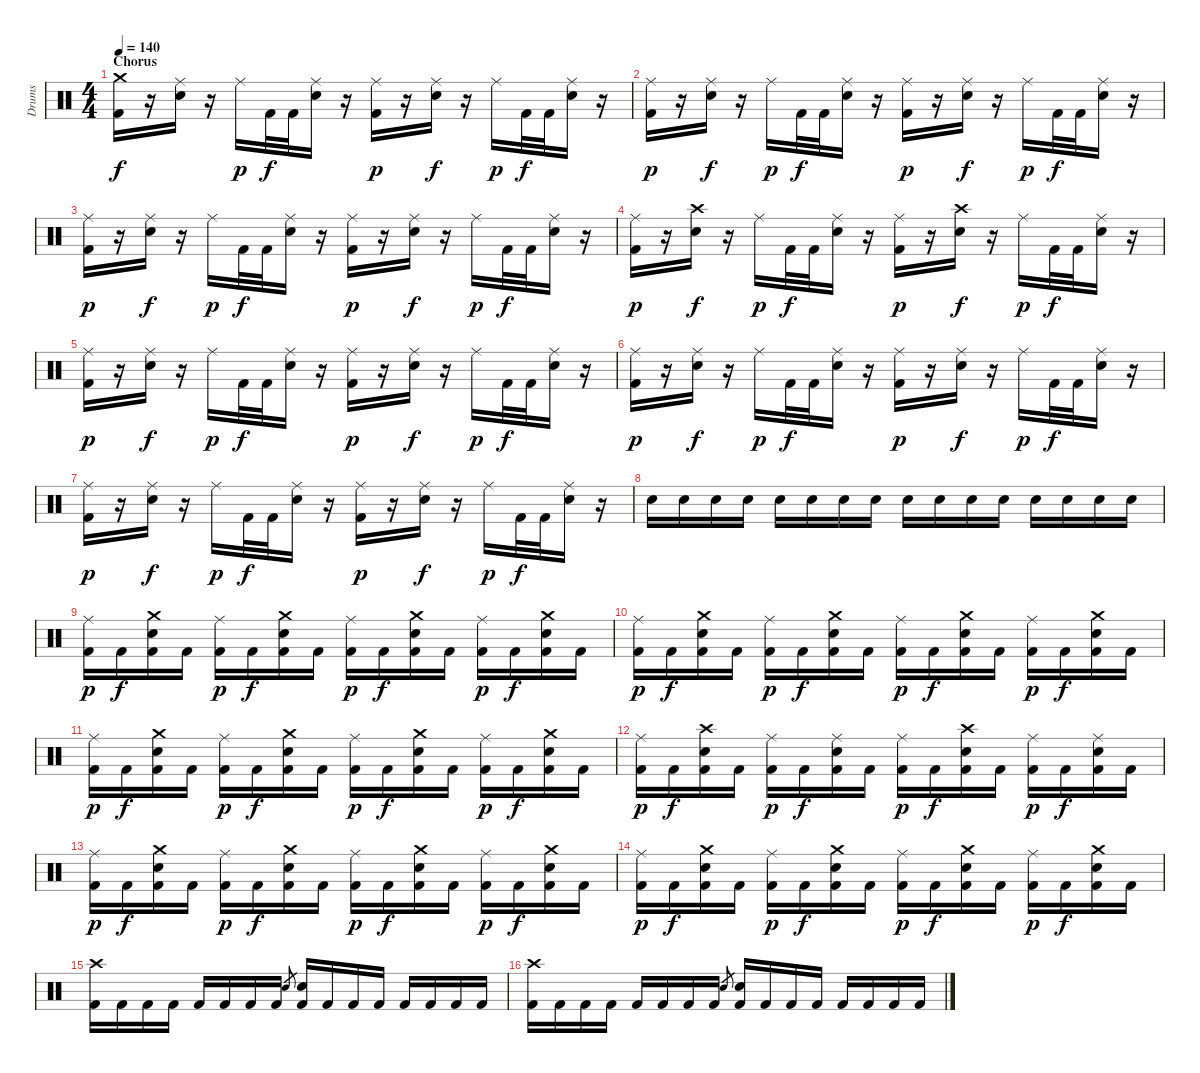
\track ("Drums" "Drums") {instrument percussion}
\staff {score}
\articulation defaults
\ts (4 4)
\section ("" "Chorus")
\tempo 140
\clef neutral
\ks c
("Crash medium (hit)" "Kick (hit) 2").16{dy f} r.16 ("Ride (middle)" "Snare (hit) 2").16 r.16 "Ride (middle)".16{dy p} "Kick (hit) 2".32{dy f} "Kick (hit) 2".32 ("Ride (middle)" "Snare (hit) 2").16 r.16 ("Ride (middle)" "Kick (hit) 2").16{dy p} r.16 ("Ride (middle)" "Snare (hit) 2").16{dy f} r.16 "Ride (middle)".16{dy p} "Kick (hit) 2".32{dy f} "Kick (hit) 2".32 ("Ride (middle)" "Snare (hit) 2").16 r.16 |
("Ride (middle)" "Kick (hit) 2").16{dy p} r.16 ("Ride (middle)" "Snare (hit) 2").16{dy f} r.16 "Ride (middle)".16{dy p} "Kick (hit) 2".32{dy f} "Kick (hit) 2".32 ("Ride (middle)" "Snare (hit) 2").16 r.16 ("Ride (middle)" "Kick (hit) 2").16{dy p} r.16 ("Ride (middle)" "Snare (hit) 2").16{dy f} r.16 "Ride (middle)".16{dy p} "Kick (hit) 2".32{dy f} "Kick (hit) 2".32 ("Ride (middle)" "Snare (hit) 2").16 r.16 |
("Ride (middle)" "Kick (hit) 2").16{dy p} r.16 ("Ride (middle)" "Snare (hit) 2").16{dy f} r.16 "Ride (middle)".16{dy p} "Kick (hit) 2".32{dy f} "Kick (hit) 2".32 ("Ride (middle)" "Snare (hit) 2").16 r.16 ("Ride (middle)" "Kick (hit) 2").16{dy p} r.16 ("Ride (middle)" "Snare (hit) 2").16{dy f} r.16 "Ride (middle)".16{dy p} "Kick (hit) 2".32{dy f} "Kick (hit) 2".32 ("Ride (middle)" "Snare (hit) 2").16 r.16 |
("Ride (middle)" "Kick (hit) 2").16{dy p} r.16 ("Crash high (hit)" "Snare (hit) 2").16{dy f} r.16 "Ride (middle)".16{dy p} "Kick (hit) 2".32{dy f} "Kick (hit) 2".32 ("Ride (middle)" "Snare (hit) 2").16 r.16 ("Ride (middle)" "Kick (hit) 2").16{dy p} r.16 ("Crash high (hit)" "Snare (hit) 2").16{dy f} r.16 "Ride (middle)".16{dy p} "Kick (hit) 2".32{dy f} "Kick (hit) 2".32 ("Ride (middle)" "Snare (hit) 2").16 r.16 |
("Ride (middle)" "Kick (hit) 2").16{dy p} r.16 ("Ride (middle)" "Snare (hit) 2").16{dy f} r.16 "Ride (middle)".16{dy p} "Kick (hit) 2".32{dy f} "Kick (hit) 2".32 ("Ride (middle)" "Snare (hit) 2").16 r.16 ("Ride (middle)" "Kick (hit) 2").16{dy p} r.16 ("Ride (middle)" "Snare (hit) 2").16{dy f} r.16 "Ride (middle)".16{dy p} "Kick (hit) 2".32{dy f} "Kick (hit) 2".32 ("Ride (middle)" "Snare (hit) 2").16 r.16 |
("Ride (middle)" "Kick (hit) 2").16{dy p} r.16 ("Ride (middle)" "Snare (hit) 2").16{dy f} r.16 "Ride (middle)".16{dy p} "Kick (hit) 2".32{dy f} "Kick (hit) 2".32 ("Ride (middle)" "Snare (hit) 2").16 r.16 ("Ride (middle)" "Kick (hit) 2").16{dy p} r.16 ("Ride (middle)" "Snare (hit) 2").16{dy f} r.16 "Ride (middle)".16{dy p} "Kick (hit) 2".32{dy f} "Kick (hit) 2".32 ("Ride (middle)" "Snare (hit) 2").16 r.16 |
("Ride (middle)" "Kick (hit) 2").16{dy p} r.16 ("Ride (middle)" "Snare (hit) 2").16{dy f} r.16 "Ride (middle)".16{dy p} "Kick (hit) 2".32{dy f} "Kick (hit) 2".32 ("Ride (middle)" "Snare (hit) 2").16 r.16 ("Ride (middle)" "Kick (hit) 2").16{dy p} r.16 ("Ride (middle)" "Snare (hit) 2").16{dy f} r.16 "Ride (middle)".16{dy p} "Kick (hit) 2".32{dy f} "Kick (hit) 2".32 ("Ride (middle)" "Snare (hit) 2").16 r.16 |
"Snare (hit) 2".16 "Snare (hit) 2".16 "Snare (hit) 2".16 "Snare (hit) 2".16 "Snare (hit) 2".16 "Snare (hit) 2".16 "Snare (hit) 2".16 "Snare (hit) 2".16 "Snare (hit) 2".16 "Snare (hit) 2".16 "Snare (hit) 2".16 "Snare (hit) 2".16 "Snare (hit) 2".16 "Snare (hit) 2".16 "Snare (hit) 2".16 "Snare (hit) 2".16 |
("Ride (middle)" "Kick (hit) 2").16{dy p} "Kick (hit) 2".16{dy f} ("Crash medium (hit)" "Snare (hit) 2" "Kick (hit) 2").16 "Kick (hit) 2".16 ("Ride (middle)" "Kick (hit) 2").16{dy p} "Kick (hit) 2".16{dy f} ("Crash medium (hit)" "Snare (hit) 2" "Kick (hit) 2").16 "Kick (hit) 2".16 ("Ride (middle)" "Kick (hit) 2").16{dy p} "Kick (hit) 2".16{dy f} ("Crash medium (hit)" "Snare (hit) 2" "Kick (hit) 2").16 "Kick (hit) 2".16 ("Ride (middle)" "Kick (hit) 2").16{dy p} "Kick (hit) 2".16{dy f} ("Crash medium (hit)" "Snare (hit) 2" "Kick (hit) 2").16 "Kick (hit) 2".16 |
("Ride (middle)" "Kick (hit) 2").16{dy p} "Kick (hit) 2".16{dy f} ("Crash medium (hit)" "Snare (hit) 2" "Kick (hit) 2").16 "Kick (hit) 2".16 ("Ride (middle)" "Kick (hit) 2").16{dy p} "Kick (hit) 2".16{dy f} ("Crash medium (hit)" "Snare (hit) 2" "Kick (hit) 2").16 "Kick (hit) 2".16 ("Ride (middle)" "Kick (hit) 2").16{dy p} "Kick (hit) 2".16{dy f} ("Crash medium (hit)" "Snare (hit) 2" "Kick (hit) 2").16 "Kick (hit) 2".16 ("Ride (middle)" "Kick (hit) 2").16{dy p} "Kick (hit) 2".16{dy f} ("Crash medium (hit)" "Snare (hit) 2" "Kick (hit) 2").16 "Kick (hit) 2".16 |
("Ride (middle)" "Kick (hit) 2").16{dy p} "Kick (hit) 2".16{dy f} ("Crash medium (hit)" "Snare (hit) 2" "Kick (hit) 2").16 "Kick (hit) 2".16 ("Ride (middle)" "Kick (hit) 2").16{dy p} "Kick (hit) 2".16{dy f} ("Crash medium (hit)" "Snare (hit) 2" "Kick (hit) 2").16 "Kick (hit) 2".16 ("Ride (middle)" "Kick (hit) 2").16{dy p} "Kick (hit) 2".16{dy f} ("Crash medium (hit)" "Snare (hit) 2" "Kick (hit) 2").16 "Kick (hit) 2".16 ("Ride (middle)" "Kick (hit) 2").16{dy p} "Kick (hit) 2".16{dy f} ("Crash medium (hit)" "Snare (hit) 2" "Kick (hit) 2").16 "Kick (hit) 2".16 |
("Ride (middle)" "Kick (hit) 2").16{dy p} "Kick (hit) 2".16{dy f} ("Crash high (hit)" "Snare (hit) 2" "Kick (hit) 2").16 "Kick (hit) 2".16 ("Ride (middle)" "Kick (hit) 2").16{dy p} "Kick (hit) 2".16{dy f} ("Ride (middle)" "Snare (hit) 2" "Kick (hit) 2").16 "Kick (hit) 2".16 ("Ride (middle)" "Kick (hit) 2").16{dy p} "Kick (hit) 2".16{dy f} ("Crash high (hit)" "Snare (hit) 2" "Kick (hit) 2").16 "Kick (hit) 2".16 ("Ride (middle)" "Kick (hit) 2").16{dy p} "Kick (hit) 2".16{dy f} ("Ride (middle)" "Snare (hit) 2" "Kick (hit) 2").16 "Kick (hit) 2".16 |
("Ride (middle)" "Kick (hit) 2").16{dy p} "Kick (hit) 2".16{dy f} ("Crash medium (hit)" "Snare (hit) 2" "Kick (hit) 2").16 "Kick (hit) 2".16 ("Ride (middle)" "Kick (hit) 2").16{dy p} "Kick (hit) 2".16{dy f} ("Crash medium (hit)" "Snare (hit) 2" "Kick (hit) 2").16 "Kick (hit) 2".16 ("Ride (middle)" "Kick (hit) 2").16{dy p} "Kick (hit) 2".16{dy f} ("Crash medium (hit)" "Snare (hit) 2" "Kick (hit) 2").16 "Kick (hit) 2".16 ("Ride (middle)" "Kick (hit) 2").16{dy p} "Kick (hit) 2".16{dy f} ("Crash medium (hit)" "Snare (hit) 2" "Kick (hit) 2").16 "Kick (hit) 2".16 |
("Ride (middle)" "Kick (hit) 2").16{dy p} "Kick (hit) 2".16{dy f} ("Crash medium (hit)" "Snare (hit) 2" "Kick (hit) 2").16 "Kick (hit) 2".16 ("Ride (middle)" "Kick (hit) 2").16{dy p} "Kick (hit) 2".16{dy f} ("Crash medium (hit)" "Snare (hit) 2" "Kick (hit) 2").16 "Kick (hit) 2".16 ("Ride (middle)" "Kick (hit) 2").16{dy p} "Kick (hit) 2".16{dy f} ("Crash medium (hit)" "Snare (hit) 2" "Kick (hit) 2").16 "Kick (hit) 2".16 ("Ride (middle)" "Kick (hit) 2").16{dy p} "Kick (hit) 2".16{dy f} ("Crash medium (hit)" "Snare (hit) 2" "Kick (hit) 2").16 "Kick (hit) 2".16 |
("Crash high (hit)" "Kick (hit) 2").16 "Kick (hit) 2".16 "Kick (hit) 2".16 "Kick (hit) 2".16 "Kick (hit) 2".16 "Kick (hit) 2".16 "Kick (hit) 2".16 "Kick (hit) 2".16 "Snare (hit) 2".8{gr} ("Snare (hit) 2" "Kick (hit) 2").16 "Kick (hit) 2".16 "Kick (hit) 2".16 "Kick (hit) 2".16 "Kick (hit) 2".16 "Kick (hit) 2".16 "Kick (hit) 2".16 "Kick (hit) 2".16 |
("Crash high (hit)" "Kick (hit) 2").16 "Kick (hit) 2".16 "Kick (hit) 2".16 "Kick (hit) 2".16 "Kick (hit) 2".16 "Kick (hit) 2".16 "Kick (hit) 2".16 "Kick (hit) 2".16 "Snare (hit) 2".8{gr} ("Snare (hit) 2" "Kick (hit) 2").16 "Kick (hit) 2".16 "Kick (hit) 2".16 "Kick (hit) 2".16 "Kick (hit) 2".16 "Kick (hit) 2".16 "Kick (hit) 2".16 "Kick (hit) 2".16
